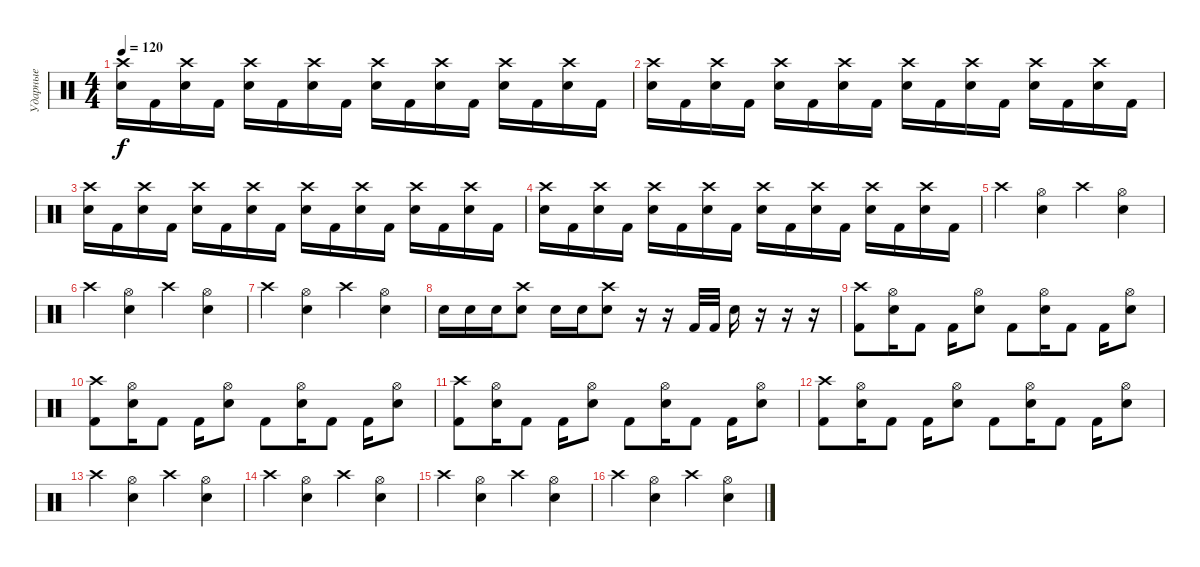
\track ("Ударные" "Ударные") {instrument percussion}
\staff {score}
\articulation defaults
\ts (4 4)
\tempo 120
\clef neutral
\ks c
("Electric Snare (hit)" "Crash high (hit)").16{dy f} "Kick (hit) 2".16 ("Electric Snare (hit)" "Crash high (hit)").16 "Kick (hit) 2".16 ("Electric Snare (hit)" "Crash high (hit)").16 "Kick (hit) 2".16 ("Electric Snare (hit)" "Crash high (hit)").16 "Kick (hit) 2".16 ("Electric Snare (hit)" "Crash high (hit)").16 "Kick (hit) 2".16 ("Electric Snare (hit)" "Crash high (hit)").16 "Kick (hit) 2".16 ("Electric Snare (hit)" "Crash high (hit)").16 "Kick (hit) 2".16 ("Electric Snare (hit)" "Crash high (hit)").16 "Kick (hit) 2".16 |
("Electric Snare (hit)" "Crash high (hit)").16 "Kick (hit) 2".16 ("Electric Snare (hit)" "Crash high (hit)").16 "Kick (hit) 2".16 ("Electric Snare (hit)" "Crash high (hit)").16 "Kick (hit) 2".16 ("Electric Snare (hit)" "Crash high (hit)").16 "Kick (hit) 2".16 ("Electric Snare (hit)" "Crash high (hit)").16 "Kick (hit) 2".16 ("Electric Snare (hit)" "Crash high (hit)").16 "Kick (hit) 2".16 ("Electric Snare (hit)" "Crash high (hit)").16 "Kick (hit) 2".16 ("Electric Snare (hit)" "Crash high (hit)").16 "Kick (hit) 2".16 |
("Electric Snare (hit)" "Crash high (hit)").16 "Kick (hit) 2".16 ("Electric Snare (hit)" "Crash high (hit)").16 "Kick (hit) 2".16 ("Electric Snare (hit)" "Crash high (hit)").16 "Kick (hit) 2".16 ("Electric Snare (hit)" "Crash high (hit)").16 "Kick (hit) 2".16 ("Electric Snare (hit)" "Crash high (hit)").16 "Kick (hit) 2".16 ("Electric Snare (hit)" "Crash high (hit)").16 "Kick (hit) 2".16 ("Electric Snare (hit)" "Crash high (hit)").16 "Kick (hit) 2".16 ("Electric Snare (hit)" "Crash high (hit)").16 "Kick (hit) 2".16 |
("Electric Snare (hit)" "Crash high (hit)").16 "Kick (hit) 2".16 ("Electric Snare (hit)" "Crash high (hit)").16 "Kick (hit) 2".16 ("Electric Snare (hit)" "Crash high (hit)").16 "Kick (hit) 2".16 ("Electric Snare (hit)" "Crash high (hit)").16 "Kick (hit) 2".16 ("Electric Snare (hit)" "Crash high (hit)").16 "Kick (hit) 2".16 ("Electric Snare (hit)" "Crash high (hit)").16 "Kick (hit) 2".16 ("Electric Snare (hit)" "Crash high (hit)").16 "Kick (hit) 2".16 ("Electric Snare (hit)" "Crash high (hit)").16 "Kick (hit) 2".16 |
"Crash high (hit)".4 ("Hi-Hat (open)" "Electric Snare (hit)").4 "Crash high (hit)".4 ("Hi-Hat (open)" "Electric Snare (hit)").4 |
"Crash high (hit)".4 ("Hi-Hat (open)" "Electric Snare (hit)").4 "Crash high (hit)".4 ("Hi-Hat (open)" "Electric Snare (hit)").4 |
"Crash high (hit)".4 ("Hi-Hat (open)" "Electric Snare (hit)").4 "Crash high (hit)".4 ("Hi-Hat (open)" "Electric Snare (hit)").4 |
"Electric Snare (hit)".16 "Electric Snare (hit)".16 "Electric Snare (hit)".16 ("Electric Snare (hit)" "Crash high (hit)").8 "Electric Snare (hit)".16 "Electric Snare (hit)".16 ("Electric Snare (hit)" "Crash high (hit)").8 r.16 r.16 "Kick (hit) 2".32 "Kick (hit) 2".32 "Electric Snare (hit)".16 r.16 r.16 r.16 |
("Crash high (hit)" "Kick (hit) 2").8 ("Hi-Hat (open)" "Electric Snare (hit)").16 "Kick (hit) 2".8 "Kick (hit) 2".16 ("Electric Snare (hit)" "Hi-Hat (open)").8 "Kick (hit) 2".8 ("Hi-Hat (open)" "Electric Snare (hit)").16 "Kick (hit) 2".8 "Kick (hit) 2".16 ("Electric Snare (hit)" "Hi-Hat (open)").8 |
("Crash high (hit)" "Kick (hit) 2").8 ("Hi-Hat (open)" "Electric Snare (hit)").16 "Kick (hit) 2".8 "Kick (hit) 2".16 ("Electric Snare (hit)" "Hi-Hat (open)").8 "Kick (hit) 2".8 ("Hi-Hat (open)" "Electric Snare (hit)").16 "Kick (hit) 2".8 "Kick (hit) 2".16 ("Electric Snare (hit)" "Hi-Hat (open)").8 |
("Crash high (hit)" "Kick (hit) 2").8 ("Hi-Hat (open)" "Electric Snare (hit)").16 "Kick (hit) 2".8 "Kick (hit) 2".16 ("Electric Snare (hit)" "Hi-Hat (open)").8 "Kick (hit) 2".8 ("Hi-Hat (open)" "Electric Snare (hit)").16 "Kick (hit) 2".8 "Kick (hit) 2".16 ("Electric Snare (hit)" "Hi-Hat (open)").8 |
("Crash high (hit)" "Kick (hit) 2").8 ("Hi-Hat (open)" "Electric Snare (hit)").16 "Kick (hit) 2".8 "Kick (hit) 2".16 ("Electric Snare (hit)" "Hi-Hat (open)").8 "Kick (hit) 2".8 ("Hi-Hat (open)" "Electric Snare (hit)").16 "Kick (hit) 2".8 "Kick (hit) 2".16 ("Electric Snare (hit)" "Hi-Hat (open)").8 |
"Crash high (hit)".4 ("Hi-Hat (open)" "Electric Snare (hit)").4 "Crash high (hit)".4 ("Hi-Hat (open)" "Electric Snare (hit)").4 |
"Crash high (hit)".4 ("Hi-Hat (open)" "Electric Snare (hit)").4 "Crash high (hit)".4 ("Hi-Hat (open)" "Electric Snare (hit)").4 |
"Crash high (hit)".4 ("Hi-Hat (open)" "Electric Snare (hit)").4 "Crash high (hit)".4 ("Hi-Hat (open)" "Electric Snare (hit)").4 |
"Crash high (hit)".4 ("Hi-Hat (open)" "Electric Snare (hit)").4 "Crash high (hit)".4 ("Hi-Hat (open)" "Electric Snare (hit)").4
